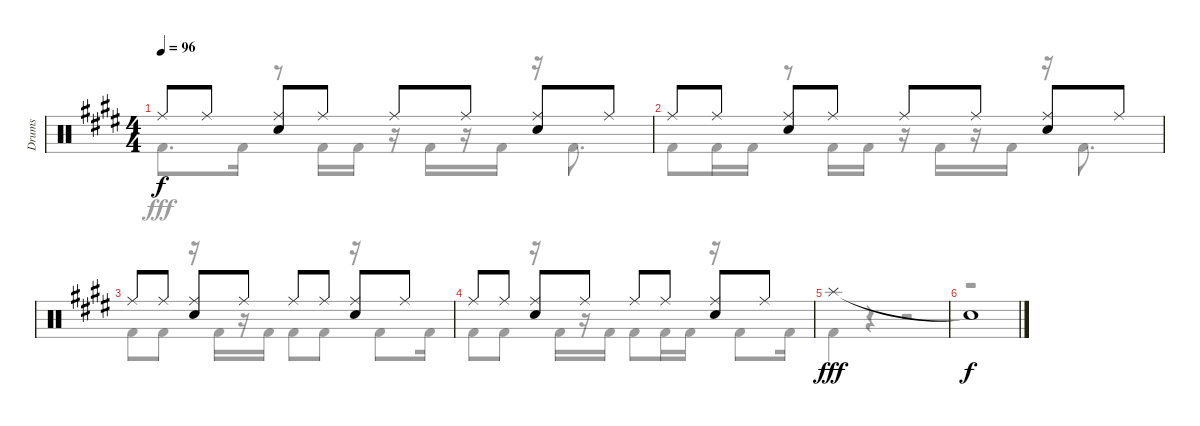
\track ("Drums" "Drums") {instrument percussion}
\staff {score}
\articulation defaults
\voice
\ts (4 4)
\tempo 96
\clef neutral
\ks e "Ride (middle)".8{dy f} "Ride (middle)".8
("Ride (middle)" "Snare (hit) 2").8 "Ride (middle)".8 "Ride (middle)".8 "Ride (middle)".8 ("Ride (middle)" "Snare (hit) 2").8 "Ride (middle)".8 |
"Ride (middle)".8 "Ride (middle)".8 ("Ride (middle)" "Snare (hit) 2").8 "Ride (middle)".8 "Ride (middle)".8 "Ride (middle)".8 ("Ride (middle)" "Snare (hit) 2").8 "Ride (middle)".8 |
"Ride (middle)".8 "Ride (middle)".8 ("Ride (middle)" "Snare (hit) 2").8 "Ride (middle)".8 "Ride (middle)".8 "Ride (middle)".8 ("Ride (middle)" "Snare (hit) 2").8 "Ride (middle)".8 |
"Ride (middle)".8 "Ride (middle)".8 ("Ride (middle)" "Snare (hit) 2").8 "Ride (middle)".8 "Ride (middle)".8 "Ride (middle)".8 ("Ride (middle)" "Snare (hit) 2").8 "Ride (middle)".8 |
"Splash (hit)".1{dy fff} |
"Snare (hit)"{t}.1{dy f}
\voice
\clef neutral
\ottava regular
\simile none
\ks e "Kick (hit) 2".8{d dy fff} "Kick (hit) 2".16
r.8 "Kick (hit) 2".16 "Kick (hit) 2".16 r.16 "Kick (hit) 2".16 r.16 "Kick (hit) 2".16 r.16 "Kick (hit) 2".8{d} |
"Kick (hit) 2".8 "Kick (hit) 2".16 "Kick (hit) 2".16 r.8 "Kick (hit) 2".16 "Kick (hit) 2".16 r.16 "Kick (hit) 2".16 r.16 "Kick (hit) 2".16 r.16 "Kick (hit) 2".8{d} |
"Kick (hit) 2".8 "Kick (hit) 2".8 r.16 "Kick (hit) 2".16 r.16 "Kick (hit) 2".16 "Kick (hit) 2".8 "Kick (hit) 2".8 r.16 "Kick (hit) 2".8 "Kick (hit) 2".16 |
"Kick (hit) 2".8 "Kick (hit) 2".8 r.16 "Kick (hit) 2".16 r.16 "Kick (hit) 2".16 "Kick (hit) 2".8 "Kick (hit) 2".16 "Kick (hit) 2".16 r.16 "Kick (hit) 2".8 "Kick (hit) 2".16 |
"Kick (hit) 2".4 r.4 r.2 |
r.1
